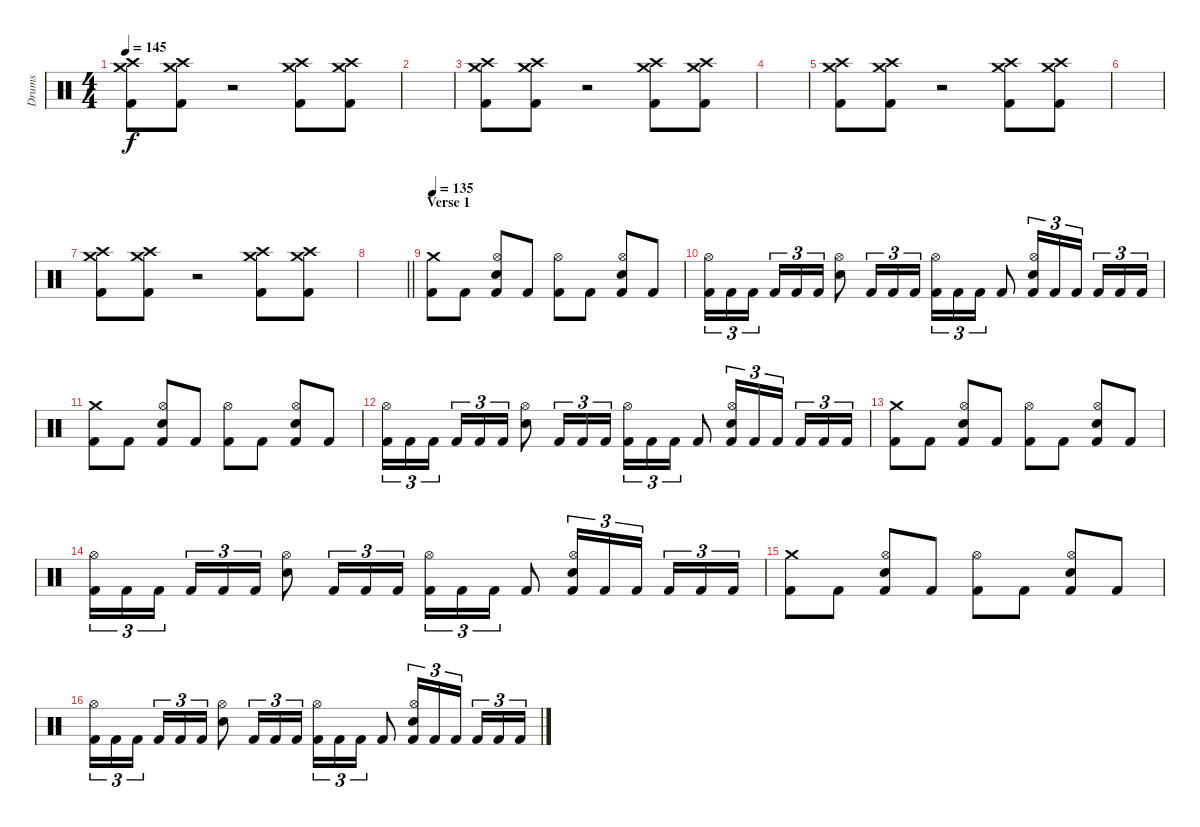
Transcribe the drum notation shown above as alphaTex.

\track ("Drums" "Drums") {instrument percussion}
\staff {score}
\articulation defaults
\ts (4 4)
\tempo 145
\clef neutral
\ks c
("Crash medium (hit)" "Crash high (hit)" "Kick (hit) 2").8{dy f} ("Crash high (hit)" "Crash medium (hit)" "Kick (hit) 2").8 r.2 ("Crash medium (hit)" "Crash high (hit)" "Kick (hit) 2").8 ("Crash high (hit)" "Crash medium (hit)" "Kick (hit) 2").8 |
|
("Crash medium (hit)" "Crash high (hit)" "Kick (hit) 2").8 ("Crash high (hit)" "Crash medium (hit)" "Kick (hit) 2").8 r.2 ("Crash medium (hit)" "Crash high (hit)" "Kick (hit) 2").8 ("Crash high (hit)" "Crash medium (hit)" "Kick (hit) 2").8 |
|
("Crash medium (hit)" "Crash high (hit)" "Kick (hit) 2").8 ("Crash high (hit)" "Crash medium (hit)" "Kick (hit) 2").8 r.2 ("Crash medium (hit)" "Crash high (hit)" "Kick (hit) 2").8 ("Crash high (hit)" "Crash medium (hit)" "Kick (hit) 2").8 |
|
("Crash medium (hit)" "Crash high (hit)" "Kick (hit) 2").8 ("Crash high (hit)" "Crash medium (hit)" "Kick (hit) 2").8 r.2 ("Crash medium (hit)" "Crash high (hit)" "Kick (hit) 2").8 ("Crash high (hit)" "Crash medium (hit)" "Kick (hit) 2").8 |
\barLineRight lightlight
|
\section ("" "Verse 1")
\tempo 135
("Crash medium (hit)" "Kick (hit) 2").8 "Kick (hit) 2".8 ("Hi-Hat (open)" "Snare (hit) 2" "Kick (hit) 2").8 "Kick (hit) 2".8 ("Hi-Hat (open)" "Kick (hit) 2").8 "Kick (hit) 2".8 ("Hi-Hat (open)" "Snare (hit) 2" "Kick (hit) 2").8 "Kick (hit) 2".8 |
("Hi-Hat (open)" "Kick (hit) 2").16{tu (3 2)} "Kick (hit) 2".16{tu (3 2)} "Kick (hit) 2".16{tu (3 2) beam splitsecondary} "Kick (hit) 2".16{tu (3 2)} "Kick (hit) 2".16{tu (3 2)} "Kick (hit) 2".16{tu (3 2)} ("Hi-Hat (open)" "Snare (hit) 2").8 "Kick (hit) 2".16{tu (3 2)} "Kick (hit) 2".16{tu (3 2)} "Kick (hit) 2".16{tu (3 2)} ("Hi-Hat (open)" "Kick (hit) 2").16{tu (3 2)} "Kick (hit) 2".16{tu (3 2)} "Kick (hit) 2".16{tu (3 2)} "Kick (hit) 2".8 ("Hi-Hat (open)" "Snare (hit) 2" "Kick (hit) 2").16{tu (3 2)} "Kick (hit) 2".16{tu (3 2)} "Kick (hit) 2".16{tu (3 2) beam splitsecondary} "Kick (hit) 2".16{tu (3 2)} "Kick (hit) 2".16{tu (3 2)} "Kick (hit) 2".16{tu (3 2)} |
("Crash medium (hit)" "Kick (hit) 2").8 "Kick (hit) 2".8 ("Hi-Hat (open)" "Snare (hit) 2" "Kick (hit) 2").8 "Kick (hit) 2".8 ("Hi-Hat (open)" "Kick (hit) 2").8 "Kick (hit) 2".8 ("Hi-Hat (open)" "Snare (hit) 2" "Kick (hit) 2").8 "Kick (hit) 2".8 |
("Hi-Hat (open)" "Kick (hit) 2").16{tu (3 2)} "Kick (hit) 2".16{tu (3 2)} "Kick (hit) 2".16{tu (3 2) beam splitsecondary} "Kick (hit) 2".16{tu (3 2)} "Kick (hit) 2".16{tu (3 2)} "Kick (hit) 2".16{tu (3 2)} ("Hi-Hat (open)" "Snare (hit) 2").8 "Kick (hit) 2".16{tu (3 2)} "Kick (hit) 2".16{tu (3 2)} "Kick (hit) 2".16{tu (3 2)} ("Hi-Hat (open)" "Kick (hit) 2").16{tu (3 2)} "Kick (hit) 2".16{tu (3 2)} "Kick (hit) 2".16{tu (3 2)} "Kick (hit) 2".8 ("Hi-Hat (open)" "Snare (hit) 2" "Kick (hit) 2").16{tu (3 2)} "Kick (hit) 2".16{tu (3 2)} "Kick (hit) 2".16{tu (3 2) beam splitsecondary} "Kick (hit) 2".16{tu (3 2)} "Kick (hit) 2".16{tu (3 2)} "Kick (hit) 2".16{tu (3 2)} |
("Crash medium (hit)" "Kick (hit) 2").8 "Kick (hit) 2".8 ("Hi-Hat (open)" "Snare (hit) 2" "Kick (hit) 2").8 "Kick (hit) 2".8 ("Hi-Hat (open)" "Kick (hit) 2").8 "Kick (hit) 2".8 ("Hi-Hat (open)" "Snare (hit) 2" "Kick (hit) 2").8 "Kick (hit) 2".8 |
("Hi-Hat (open)" "Kick (hit) 2").16{tu (3 2)} "Kick (hit) 2".16{tu (3 2)} "Kick (hit) 2".16{tu (3 2) beam splitsecondary} "Kick (hit) 2".16{tu (3 2)} "Kick (hit) 2".16{tu (3 2)} "Kick (hit) 2".16{tu (3 2)} ("Hi-Hat (open)" "Snare (hit) 2").8 "Kick (hit) 2".16{tu (3 2)} "Kick (hit) 2".16{tu (3 2)} "Kick (hit) 2".16{tu (3 2)} ("Hi-Hat (open)" "Kick (hit) 2").16{tu (3 2)} "Kick (hit) 2".16{tu (3 2)} "Kick (hit) 2".16{tu (3 2)} "Kick (hit) 2".8 ("Hi-Hat (open)" "Snare (hit) 2" "Kick (hit) 2").16{tu (3 2)} "Kick (hit) 2".16{tu (3 2)} "Kick (hit) 2".16{tu (3 2) beam splitsecondary} "Kick (hit) 2".16{tu (3 2)} "Kick (hit) 2".16{tu (3 2)} "Kick (hit) 2".16{tu (3 2)} |
("Crash medium (hit)" "Kick (hit) 2").8 "Kick (hit) 2".8 ("Hi-Hat (open)" "Snare (hit) 2" "Kick (hit) 2").8 "Kick (hit) 2".8 ("Hi-Hat (open)" "Kick (hit) 2").8 "Kick (hit) 2".8 ("Hi-Hat (open)" "Snare (hit) 2" "Kick (hit) 2").8 "Kick (hit) 2".8 |
("Hi-Hat (open)" "Kick (hit) 2").16{tu (3 2)} "Kick (hit) 2".16{tu (3 2)} "Kick (hit) 2".16{tu (3 2) beam splitsecondary} "Kick (hit) 2".16{tu (3 2)} "Kick (hit) 2".16{tu (3 2)} "Kick (hit) 2".16{tu (3 2)} ("Hi-Hat (open)" "Snare (hit) 2").8 "Kick (hit) 2".16{tu (3 2)} "Kick (hit) 2".16{tu (3 2)} "Kick (hit) 2".16{tu (3 2)} ("Hi-Hat (open)" "Kick (hit) 2").16{tu (3 2)} "Kick (hit) 2".16{tu (3 2)} "Kick (hit) 2".16{tu (3 2)} "Kick (hit) 2".8 ("Hi-Hat (open)" "Snare (hit) 2" "Kick (hit) 2").16{tu (3 2)} "Kick (hit) 2".16{tu (3 2)} "Kick (hit) 2".16{tu (3 2) beam splitsecondary} "Kick (hit) 2".16{tu (3 2)} "Kick (hit) 2".16{tu (3 2)} "Kick (hit) 2".16{tu (3 2)}
